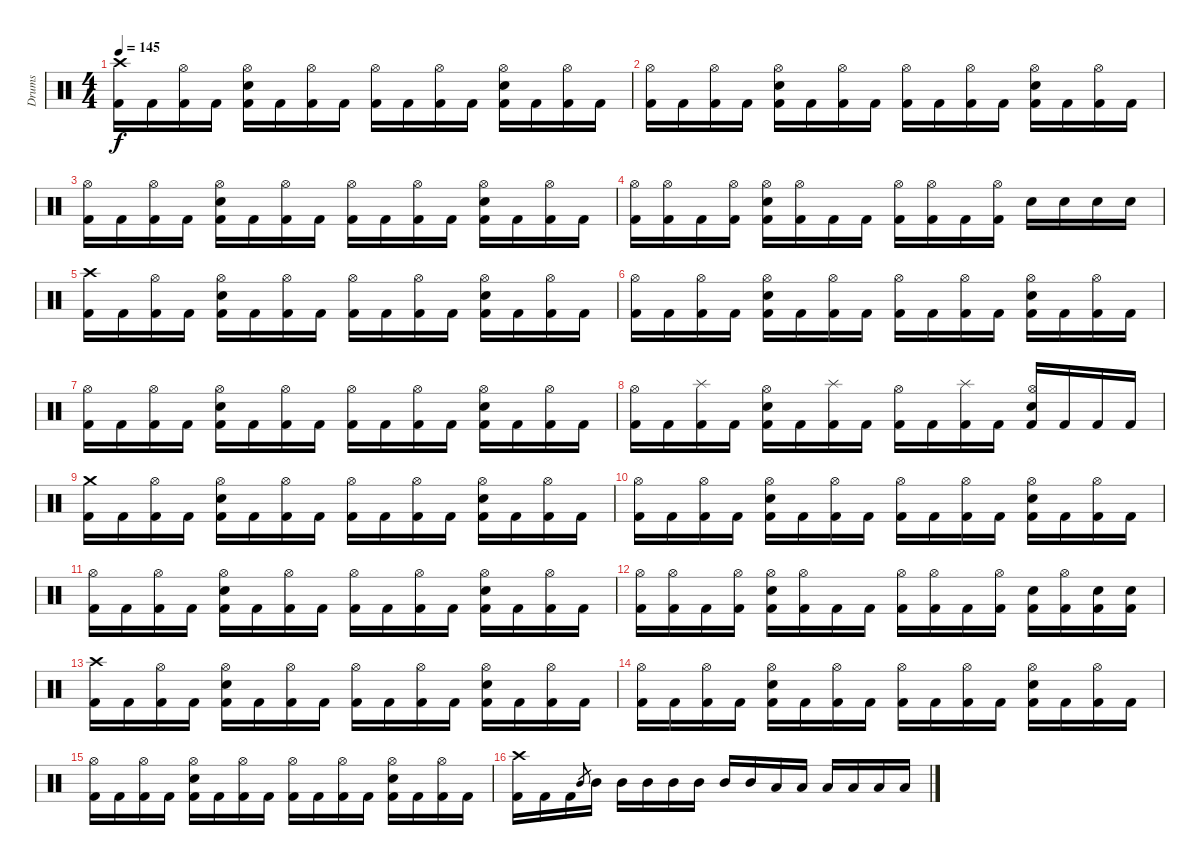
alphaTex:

\track ("Drums" "Drums") {instrument percussion}
\staff {score}
\articulation defaults
\ts (4 4)
\tempo 145
\clef neutral
\ks c
("Crash high (hit)" "Kick (hit) 2").16{dy f} "Kick (hit) 2".16 ("Hi-Hat (open)" "Kick (hit) 2").16 "Kick (hit) 2".16 ("Hi-Hat (open)" "Electric Snare (hit)" "Kick (hit) 2").16 "Kick (hit) 2".16 ("Hi-Hat (open)" "Kick (hit) 2").16 "Kick (hit) 2".16 ("Hi-Hat (open)" "Kick (hit) 2").16 "Kick (hit) 2".16 ("Hi-Hat (open)" "Kick (hit) 2").16 "Kick (hit) 2".16 ("Hi-Hat (open)" "Electric Snare (hit)" "Kick (hit) 2").16 "Kick (hit) 2".16 ("Hi-Hat (open)" "Kick (hit) 2").16 "Kick (hit) 2".16 |
("Hi-Hat (open)" "Kick (hit) 2").16 "Kick (hit) 2".16 ("Hi-Hat (open)" "Kick (hit) 2").16 "Kick (hit) 2".16 ("Hi-Hat (open)" "Electric Snare (hit)" "Kick (hit) 2").16 "Kick (hit) 2".16 ("Hi-Hat (open)" "Kick (hit) 2").16 "Kick (hit) 2".16 ("Hi-Hat (open)" "Kick (hit) 2").16 "Kick (hit) 2".16 ("Hi-Hat (open)" "Kick (hit) 2").16 "Kick (hit) 2".16 ("Hi-Hat (open)" "Electric Snare (hit)" "Kick (hit) 2").16 "Kick (hit) 2".16 ("Hi-Hat (open)" "Kick (hit) 2").16 "Kick (hit) 2".16 |
("Hi-Hat (open)" "Kick (hit) 2").16 "Kick (hit) 2".16 ("Hi-Hat (open)" "Kick (hit) 2").16 "Kick (hit) 2".16 ("Hi-Hat (open)" "Electric Snare (hit)" "Kick (hit) 2").16 "Kick (hit) 2".16 ("Hi-Hat (open)" "Kick (hit) 2").16 "Kick (hit) 2".16 ("Hi-Hat (open)" "Kick (hit) 2").16 "Kick (hit) 2".16 ("Hi-Hat (open)" "Kick (hit) 2").16 "Kick (hit) 2".16 ("Hi-Hat (open)" "Electric Snare (hit)" "Kick (hit) 2").16 "Kick (hit) 2".16 ("Hi-Hat (open)" "Kick (hit) 2").16 "Kick (hit) 2".16 |
("Hi-Hat (open)" "Kick (hit) 2").16 ("Hi-Hat (open)" "Kick (hit) 2").16 "Kick (hit) 2".16 ("Hi-Hat (open)" "Kick (hit) 2").16 ("Hi-Hat (open)" "Electric Snare (hit)" "Kick (hit) 2").16 ("Hi-Hat (open)" "Kick (hit) 2").16 "Kick (hit) 2".16 "Kick (hit) 2".16 ("Hi-Hat (open)" "Kick (hit) 2").16 ("Hi-Hat (open)" "Kick (hit) 2").16 "Kick (hit) 2".16 ("Hi-Hat (open)" "Kick (hit) 2").16 "Electric Snare (hit)".16 "Electric Snare (hit)".16 "Electric Snare (hit)".16 "Electric Snare (hit)".16 |
("Crash high (hit)" "Kick (hit) 2").16 "Kick (hit) 2".16 ("Hi-Hat (open)" "Kick (hit) 2").16 "Kick (hit) 2".16 ("Hi-Hat (open)" "Electric Snare (hit)" "Kick (hit) 2").16 "Kick (hit) 2".16 ("Hi-Hat (open)" "Kick (hit) 2").16 "Kick (hit) 2".16 ("Hi-Hat (open)" "Kick (hit) 2").16 "Kick (hit) 2".16 ("Hi-Hat (open)" "Kick (hit) 2").16 "Kick (hit) 2".16 ("Hi-Hat (open)" "Electric Snare (hit)" "Kick (hit) 2").16 "Kick (hit) 2".16 ("Hi-Hat (open)" "Kick (hit) 2").16 "Kick (hit) 2".16 |
("Hi-Hat (open)" "Kick (hit) 2").16 "Kick (hit) 2".16 ("Hi-Hat (open)" "Kick (hit) 2").16 "Kick (hit) 2".16 ("Hi-Hat (open)" "Electric Snare (hit)" "Kick (hit) 2").16 "Kick (hit) 2".16 ("Hi-Hat (open)" "Kick (hit) 2").16 "Kick (hit) 2".16 ("Hi-Hat (open)" "Kick (hit) 2").16 "Kick (hit) 2".16 ("Hi-Hat (open)" "Kick (hit) 2").16 "Kick (hit) 2".16 ("Hi-Hat (open)" "Electric Snare (hit)" "Kick (hit) 2").16 "Kick (hit) 2".16 ("Hi-Hat (open)" "Kick (hit) 2").16 "Kick (hit) 2".16 |
("Hi-Hat (open)" "Kick (hit) 2").16 "Kick (hit) 2".16 ("Hi-Hat (open)" "Kick (hit) 2").16 "Kick (hit) 2".16 ("Hi-Hat (open)" "Electric Snare (hit)" "Kick (hit) 2").16 "Kick (hit) 2".16 ("Hi-Hat (open)" "Kick (hit) 2").16 "Kick (hit) 2".16 ("Hi-Hat (open)" "Kick (hit) 2").16 "Kick (hit) 2".16 ("Hi-Hat (open)" "Kick (hit) 2").16 "Kick (hit) 2".16 ("Hi-Hat (open)" "Electric Snare (hit)" "Kick (hit) 2").16 "Kick (hit) 2".16 ("Hi-Hat (open)" "Kick (hit) 2").16 "Kick (hit) 2".16 |
("Hi-Hat (open)" "Kick (hit) 2").16 "Kick (hit) 2".16 ("Splash (hit)" "Kick (hit) 2").16 "Kick (hit) 2".16 ("Hi-Hat (open)" "Electric Snare (hit)" "Kick (hit) 2").16 "Kick (hit) 2".16 ("Splash (hit)" "Kick (hit) 2").16 "Kick (hit) 2".16 ("Hi-Hat (open)" "Kick (hit) 2").16 "Kick (hit) 2".16 ("Splash (hit)" "Kick (hit) 2").16 "Kick (hit) 2".16 ("Hi-Hat (open)" "Electric Snare (hit)" "Kick (hit) 2").16 "Kick (hit) 2".16 "Kick (hit) 2".16 "Kick (hit) 2".16 |
("Crash medium (hit)" "Kick (hit) 2").16 "Kick (hit) 2".16 ("Hi-Hat (open)" "Kick (hit) 2").16 "Kick (hit) 2".16 ("Hi-Hat (open)" "Electric Snare (hit)" "Kick (hit) 2").16 "Kick (hit) 2".16 ("Hi-Hat (open)" "Kick (hit) 2").16 "Kick (hit) 2".16 ("Hi-Hat (open)" "Kick (hit) 2").16 "Kick (hit) 2".16 ("Hi-Hat (open)" "Kick (hit) 2").16 "Kick (hit) 2".16 ("Hi-Hat (open)" "Electric Snare (hit)" "Kick (hit) 2").16 "Kick (hit) 2".16 ("Hi-Hat (open)" "Kick (hit) 2").16 "Kick (hit) 2".16 |
("Hi-Hat (open)" "Kick (hit) 2").16 "Kick (hit) 2".16 ("Hi-Hat (open)" "Kick (hit) 2").16 "Kick (hit) 2".16 ("Hi-Hat (open)" "Electric Snare (hit)" "Kick (hit) 2").16 "Kick (hit) 2".16 ("Hi-Hat (open)" "Kick (hit) 2").16 "Kick (hit) 2".16 ("Hi-Hat (open)" "Kick (hit) 2").16 "Kick (hit) 2".16 ("Hi-Hat (open)" "Kick (hit) 2").16 "Kick (hit) 2".16 ("Hi-Hat (open)" "Electric Snare (hit)" "Kick (hit) 2").16 "Kick (hit) 2".16 ("Hi-Hat (open)" "Kick (hit) 2").16 "Kick (hit) 2".16 |
("Hi-Hat (open)" "Kick (hit) 2").16 "Kick (hit) 2".16 ("Hi-Hat (open)" "Kick (hit) 2").16 "Kick (hit) 2".16 ("Hi-Hat (open)" "Electric Snare (hit)" "Kick (hit) 2").16 "Kick (hit) 2".16 ("Hi-Hat (open)" "Kick (hit) 2").16 "Kick (hit) 2".16 ("Hi-Hat (open)" "Kick (hit) 2").16 "Kick (hit) 2".16 ("Hi-Hat (open)" "Kick (hit) 2").16 "Kick (hit) 2".16 ("Hi-Hat (open)" "Electric Snare (hit)" "Kick (hit) 2").16 "Kick (hit) 2".16 ("Hi-Hat (open)" "Kick (hit) 2").16 "Kick (hit) 2".16 |
("Hi-Hat (open)" "Kick (hit) 2").16 ("Hi-Hat (open)" "Kick (hit) 2").16 "Kick (hit) 2".16 ("Hi-Hat (open)" "Kick (hit) 2").16 ("Hi-Hat (open)" "Electric Snare (hit)" "Kick (hit) 2").16 ("Hi-Hat (open)" "Kick (hit) 2").16 "Kick (hit) 2".16 "Kick (hit) 2".16 ("Hi-Hat (open)" "Kick (hit) 2").16 ("Hi-Hat (open)" "Kick (hit) 2").16 "Kick (hit) 2".16 ("Hi-Hat (open)" "Kick (hit) 2").16 ("Electric Snare (hit)" "Kick (hit) 2").16 ("Hi-Hat (open)" "Kick (hit) 2").16 ("Electric Snare (hit)" "Kick (hit) 2").16 ("Electric Snare (hit)" "Kick (hit) 2").16 |
("Crash high (hit)" "Kick (hit) 2").16 "Kick (hit) 2".16 ("Hi-Hat (open)" "Kick (hit) 2").16 "Kick (hit) 2".16 ("Hi-Hat (open)" "Electric Snare (hit)" "Kick (hit) 2").16 "Kick (hit) 2".16 ("Hi-Hat (open)" "Kick (hit) 2").16 "Kick (hit) 2".16 ("Hi-Hat (open)" "Kick (hit) 2").16 "Kick (hit) 2".16 ("Hi-Hat (open)" "Kick (hit) 2").16 "Kick (hit) 2".16 ("Hi-Hat (open)" "Electric Snare (hit)" "Kick (hit) 2").16 "Kick (hit) 2".16 ("Hi-Hat (open)" "Kick (hit) 2").16 "Kick (hit) 2".16 |
("Hi-Hat (open)" "Kick (hit) 2").16 "Kick (hit) 2".16 ("Hi-Hat (open)" "Kick (hit) 2").16 "Kick (hit) 2".16 ("Hi-Hat (open)" "Electric Snare (hit)" "Kick (hit) 2").16 "Kick (hit) 2".16 ("Hi-Hat (open)" "Kick (hit) 2").16 "Kick (hit) 2".16 ("Hi-Hat (open)" "Kick (hit) 2").16 "Kick (hit) 2".16 ("Hi-Hat (open)" "Kick (hit) 2").16 "Kick (hit) 2".16 ("Hi-Hat (open)" "Electric Snare (hit)" "Kick (hit) 2").16 "Kick (hit) 2".16 ("Hi-Hat (open)" "Kick (hit) 2").16 "Kick (hit) 2".16 |
("Hi-Hat (open)" "Kick (hit) 2").16 "Kick (hit) 2".16 ("Hi-Hat (open)" "Kick (hit) 2").16 "Kick (hit) 2".16 ("Hi-Hat (open)" "Electric Snare (hit)" "Kick (hit) 2").16 "Kick (hit) 2".16 ("Hi-Hat (open)" "Kick (hit) 2").16 "Kick (hit) 2".16 ("Hi-Hat (open)" "Kick (hit) 2").16 "Kick (hit) 2".16 ("Hi-Hat (open)" "Kick (hit) 2").16 "Kick (hit) 2".16 ("Hi-Hat (open)" "Electric Snare (hit)" "Kick (hit) 2").16 "Kick (hit) 2".16 ("Hi-Hat (open)" "Kick (hit) 2").16 "Kick (hit) 2".16 |
("Crash high (hit)" "Kick (hit) 2").16 "Kick (hit) 2".16 "Kick (hit) 2".16 "Mid Tom (hit)".8{gr} "Mid Tom (hit)".16 "Mid Tom (hit)".16 "Mid Tom (hit)".16 "Mid Tom (hit)".16 "Mid Tom (hit)".16 "Mid Tom (hit)".16 "Mid Tom (hit)".16 "Low Tom (hit)".16 "Low Tom (hit)".16 "Low Tom (hit)".16 "Low Tom (hit)".16 "Low Tom (hit)".16 "Low Tom (hit)".16
